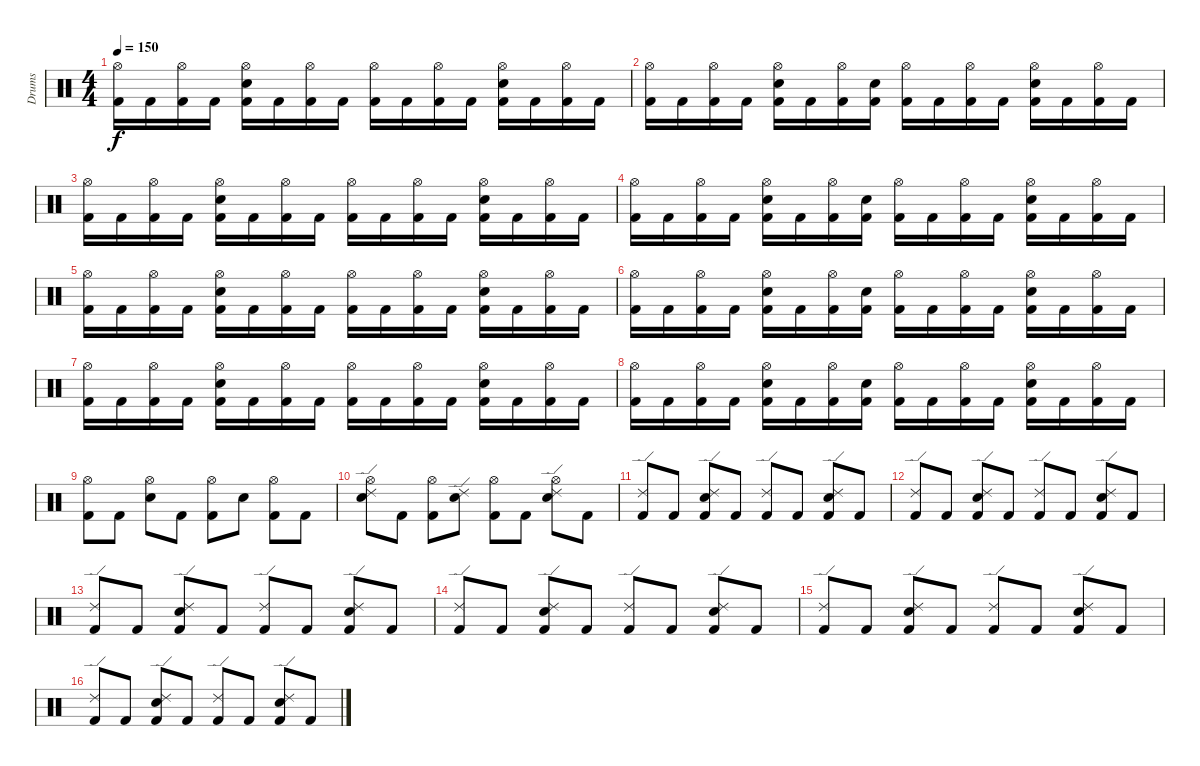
\track ("Drums" "Drums") {instrument percussion}
\staff {score}
\articulation defaults
\ts (4 4)
\tempo 150
\clef neutral
\ks c
("Hi-Hat (open)" "Kick (hit) 2").16{dy f} "Kick (hit) 2".16 ("Hi-Hat (open)" "Kick (hit) 2").16 "Kick (hit) 2".16 ("Hi-Hat (open)" "Kick (hit) 2" "Snare (hit) 2").16 "Kick (hit) 2".16 ("Hi-Hat (open)" "Kick (hit) 2").16 "Kick (hit) 2".16 ("Hi-Hat (open)" "Kick (hit) 2").16 "Kick (hit) 2".16 ("Hi-Hat (open)" "Kick (hit) 2").16 "Kick (hit) 2".16 ("Hi-Hat (open)" "Kick (hit) 2" "Snare (hit) 2").16 "Kick (hit) 2".16 ("Hi-Hat (open)" "Kick (hit) 2").16 "Kick (hit) 2".16 |
("Hi-Hat (open)" "Kick (hit) 2").16 "Kick (hit) 2".16 ("Hi-Hat (open)" "Kick (hit) 2").16 "Kick (hit) 2".16 ("Hi-Hat (open)" "Kick (hit) 2" "Snare (hit) 2").16 "Kick (hit) 2".16 ("Hi-Hat (open)" "Kick (hit) 2").16 ("Kick (hit) 2" "Snare (hit) 2").16 ("Hi-Hat (open)" "Kick (hit) 2").16 "Kick (hit) 2".16 ("Hi-Hat (open)" "Kick (hit) 2").16 "Kick (hit) 2".16 ("Hi-Hat (open)" "Kick (hit) 2" "Snare (hit) 2").16 "Kick (hit) 2".16 ("Hi-Hat (open)" "Kick (hit) 2").16 "Kick (hit) 2".16 |
("Hi-Hat (open)" "Kick (hit) 2").16 "Kick (hit) 2".16 ("Hi-Hat (open)" "Kick (hit) 2").16 "Kick (hit) 2".16 ("Hi-Hat (open)" "Kick (hit) 2" "Snare (hit) 2").16 "Kick (hit) 2".16 ("Hi-Hat (open)" "Kick (hit) 2").16 "Kick (hit) 2".16 ("Hi-Hat (open)" "Kick (hit) 2").16 "Kick (hit) 2".16 ("Hi-Hat (open)" "Kick (hit) 2").16 "Kick (hit) 2".16 ("Hi-Hat (open)" "Kick (hit) 2" "Snare (hit) 2").16 "Kick (hit) 2".16 ("Hi-Hat (open)" "Kick (hit) 2").16 "Kick (hit) 2".16 |
("Hi-Hat (open)" "Kick (hit) 2").16 "Kick (hit) 2".16 ("Hi-Hat (open)" "Kick (hit) 2").16 "Kick (hit) 2".16 ("Hi-Hat (open)" "Kick (hit) 2" "Snare (hit) 2").16 "Kick (hit) 2".16 ("Hi-Hat (open)" "Kick (hit) 2").16 ("Kick (hit) 2" "Snare (hit) 2").16 ("Hi-Hat (open)" "Kick (hit) 2").16 "Kick (hit) 2".16 ("Hi-Hat (open)" "Kick (hit) 2").16 "Kick (hit) 2".16 ("Hi-Hat (open)" "Kick (hit) 2" "Snare (hit) 2").16 "Kick (hit) 2".16 ("Hi-Hat (open)" "Kick (hit) 2").16 "Kick (hit) 2".16 |
("Hi-Hat (open)" "Kick (hit) 2").16 "Kick (hit) 2".16 ("Hi-Hat (open)" "Kick (hit) 2").16 "Kick (hit) 2".16 ("Hi-Hat (open)" "Kick (hit) 2" "Snare (hit) 2").16 "Kick (hit) 2".16 ("Hi-Hat (open)" "Kick (hit) 2").16 "Kick (hit) 2".16 ("Hi-Hat (open)" "Kick (hit) 2").16 "Kick (hit) 2".16 ("Hi-Hat (open)" "Kick (hit) 2").16 "Kick (hit) 2".16 ("Hi-Hat (open)" "Kick (hit) 2" "Snare (hit) 2").16 "Kick (hit) 2".16 ("Hi-Hat (open)" "Kick (hit) 2").16 "Kick (hit) 2".16 |
("Hi-Hat (open)" "Kick (hit) 2").16 "Kick (hit) 2".16 ("Hi-Hat (open)" "Kick (hit) 2").16 "Kick (hit) 2".16 ("Hi-Hat (open)" "Kick (hit) 2" "Snare (hit) 2").16 "Kick (hit) 2".16 ("Hi-Hat (open)" "Kick (hit) 2").16 ("Kick (hit) 2" "Snare (hit) 2").16 ("Hi-Hat (open)" "Kick (hit) 2").16 "Kick (hit) 2".16 ("Hi-Hat (open)" "Kick (hit) 2").16 "Kick (hit) 2".16 ("Hi-Hat (open)" "Kick (hit) 2" "Snare (hit) 2").16 "Kick (hit) 2".16 ("Hi-Hat (open)" "Kick (hit) 2").16 "Kick (hit) 2".16 |
("Hi-Hat (open)" "Kick (hit) 2").16 "Kick (hit) 2".16 ("Hi-Hat (open)" "Kick (hit) 2").16 "Kick (hit) 2".16 ("Hi-Hat (open)" "Kick (hit) 2" "Snare (hit) 2").16 "Kick (hit) 2".16 ("Hi-Hat (open)" "Kick (hit) 2").16 "Kick (hit) 2".16 ("Hi-Hat (open)" "Kick (hit) 2").16 "Kick (hit) 2".16 ("Hi-Hat (open)" "Kick (hit) 2").16 "Kick (hit) 2".16 ("Hi-Hat (open)" "Kick (hit) 2" "Snare (hit) 2").16 "Kick (hit) 2".16 ("Hi-Hat (open)" "Kick (hit) 2").16 "Kick (hit) 2".16 |
("Hi-Hat (open)" "Kick (hit) 2").16 "Kick (hit) 2".16 ("Hi-Hat (open)" "Kick (hit) 2").16 "Kick (hit) 2".16 ("Hi-Hat (open)" "Kick (hit) 2" "Snare (hit) 2").16 "Kick (hit) 2".16 ("Hi-Hat (open)" "Kick (hit) 2").16 ("Kick (hit) 2" "Snare (hit) 2").16 ("Hi-Hat (open)" "Kick (hit) 2").16 "Kick (hit) 2".16 ("Hi-Hat (open)" "Kick (hit) 2").16 "Kick (hit) 2".16 ("Hi-Hat (open)" "Kick (hit) 2" "Snare (hit) 2").16 "Kick (hit) 2".16 ("Hi-Hat (open)" "Kick (hit) 2").16 "Kick (hit) 2".16 |
("Hi-Hat (open)" "Kick (hit) 2").8 "Kick (hit) 2".8 ("Hi-Hat (open)" "Snare (hit) 2").8 "Kick (hit) 2".8 ("Hi-Hat (open)" "Kick (hit) 2").8 "Snare (hit) 2".8 ("Hi-Hat (open)" "Kick (hit) 2").8 "Kick (hit) 2".8 |
("Hi-Hat (open)" "Snare (hit) 2" "Ride (edge) 2").8 "Kick (hit) 2".8 ("Hi-Hat (open)" "Kick (hit) 2").8 ("Snare (hit) 2" "Ride (edge) 2").8 ("Hi-Hat (open)" "Kick (hit) 2").8 "Kick (hit) 2".8 ("Hi-Hat (open)" "Snare (hit) 2" "Ride (edge) 2").8 "Kick (hit) 2".8 |
("Ride (edge) 2" "Kick (hit) 2").8 "Kick (hit) 2".8 ("Ride (edge) 2" "Kick (hit) 2" "Snare (hit) 2").8 "Kick (hit) 2".8 ("Ride (edge) 2" "Kick (hit) 2").8 "Kick (hit) 2".8 ("Ride (edge) 2" "Kick (hit) 2" "Snare (hit) 2").8 "Kick (hit) 2".8 |
("Ride (edge) 2" "Kick (hit) 2").8 "Kick (hit) 2".8 ("Ride (edge) 2" "Kick (hit) 2" "Snare (hit) 2").8 "Kick (hit) 2".8 ("Ride (edge) 2" "Kick (hit) 2").8 "Kick (hit) 2".8 ("Ride (edge) 2" "Kick (hit) 2" "Snare (hit) 2").8 "Kick (hit) 2".8 |
("Ride (edge) 2" "Kick (hit) 2").8 "Kick (hit) 2".8 ("Ride (edge) 2" "Kick (hit) 2" "Snare (hit) 2").8 "Kick (hit) 2".8 ("Ride (edge) 2" "Kick (hit) 2").8 "Kick (hit) 2".8 ("Ride (edge) 2" "Kick (hit) 2" "Snare (hit) 2").8 "Kick (hit) 2".8 |
("Ride (edge) 2" "Kick (hit) 2").8 "Kick (hit) 2".8 ("Ride (edge) 2" "Kick (hit) 2" "Snare (hit) 2").8 "Kick (hit) 2".8 ("Ride (edge) 2" "Kick (hit) 2").8 "Kick (hit) 2".8 ("Ride (edge) 2" "Kick (hit) 2" "Snare (hit) 2").8 "Kick (hit) 2".8 |
("Ride (edge) 2" "Kick (hit) 2").8 "Kick (hit) 2".8 ("Ride (edge) 2" "Kick (hit) 2" "Snare (hit) 2").8 "Kick (hit) 2".8 ("Ride (edge) 2" "Kick (hit) 2").8 "Kick (hit) 2".8 ("Ride (edge) 2" "Kick (hit) 2" "Snare (hit) 2").8 "Kick (hit) 2".8 |
("Ride (edge) 2" "Kick (hit) 2").8 "Kick (hit) 2".8 ("Ride (edge) 2" "Kick (hit) 2" "Snare (hit) 2").8 "Kick (hit) 2".8 ("Ride (edge) 2" "Kick (hit) 2").8 "Kick (hit) 2".8 ("Ride (edge) 2" "Kick (hit) 2" "Snare (hit) 2").8 "Kick (hit) 2".8
